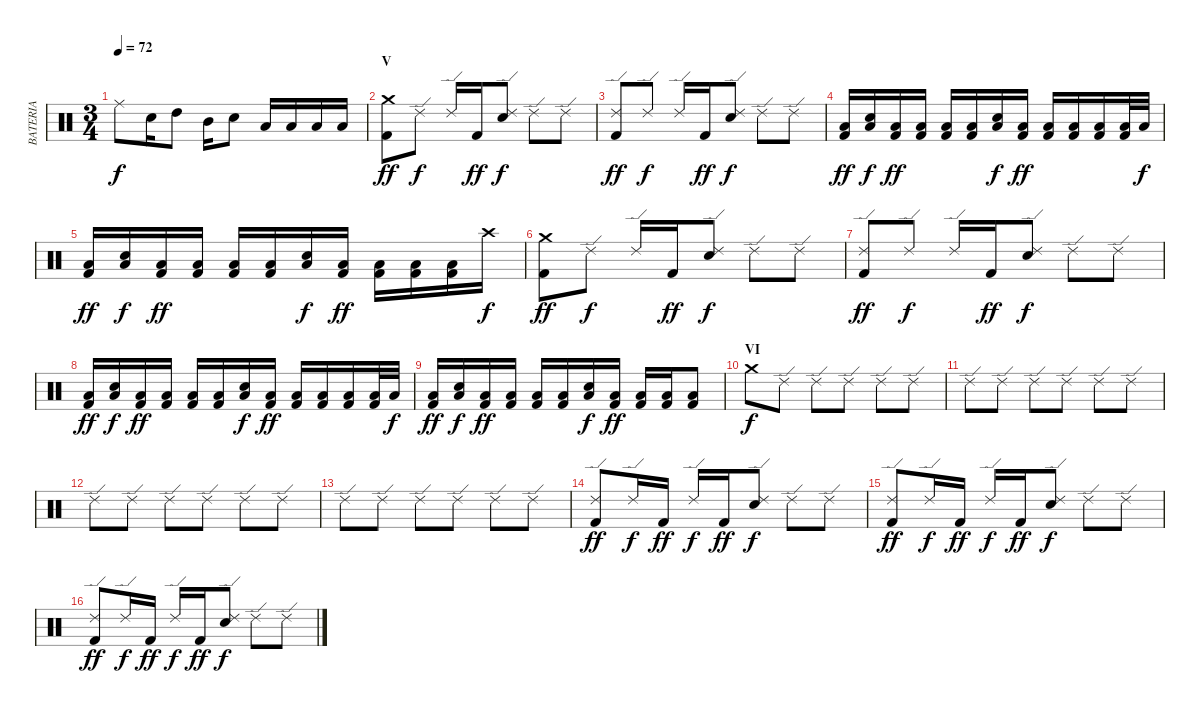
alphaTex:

\track ("BATERIA" "BATERIA") {instrument percussion}
\staff {score}
\articulation defaults
\ts (3 4)
\tempo 72
\clef neutral
\ks c "Ride (middle)".8{dy f} "Snare (hit) 2".16 "High Tom (hit)".8 "Mid Tom (hit)".16 "Snare (hit) 2".8 "Low Tom (hit)".16 "Low Tom (hit)".16 "Low Tom (hit)".16 "Low Tom (hit)".16
|
\section ("" "V")
("Crash medium (hit)" "Kick (hit) 2").8{dy ff} "Ride (edge) 2".8{dy f} "Ride (edge) 2".16 "Kick (hit) 2".16{dy ff} ("Ride (edge) 2" "Snare (hit) 2").8{dy f} "Ride (edge) 2".8 "Ride (edge) 2".8 |
("Ride (edge) 2" "Kick (hit) 2").8{dy ff} "Ride (edge) 2".8{dy f} "Ride (edge) 2".16 "Kick (hit) 2".16{dy ff} ("Ride (edge) 2" "Snare (hit) 2").8{dy f} "Ride (edge) 2".8 "Ride (edge) 2".8 |
("Low Tom (hit)" "Kick (hit) 2").16{dy ff} ("Low Tom (hit)" "Snare (hit) 2").16{dy f} ("Low Tom (hit)" "Kick (hit) 2").16{dy ff} ("Low Tom (hit)" "Kick (hit) 2").16 ("Low Tom (hit)" "Kick (hit) 2").16 ("Low Tom (hit)" "Kick (hit) 2").16 ("Low Tom (hit)" "Snare (hit) 2").16{dy f} ("Low Tom (hit)" "Kick (hit) 2").16{dy ff} ("Low Tom (hit)" "Kick (hit) 2").16 ("Low Tom (hit)" "Kick (hit) 2").16 ("Low Tom (hit)" "Kick (hit) 2").16 ("Low Tom (hit)" "Kick (hit) 2").32 "Low Tom (hit)".32{dy f} |
("Low Tom (hit)" "Kick (hit) 2").16{dy ff} ("Low Tom (hit)" "Snare (hit) 2").16{dy f} ("Low Tom (hit)" "Kick (hit) 2").16{dy ff} ("Low Tom (hit)" "Kick (hit) 2").16 ("Low Tom (hit)" "Kick (hit) 2").16 ("Low Tom (hit)" "Kick (hit) 2").16 ("Low Tom (hit)" "Snare (hit) 2").16{dy f} ("Low Tom (hit)" "Kick (hit) 2").16{dy ff} ("Low Tom (hit)" "Kick (hit) 2").16 ("Low Tom (hit)" "Kick (hit) 2").16 ("Low Tom (hit)" "Kick (hit) 2").16 "Crash high (hit)".16{dy f} |
("Crash medium (hit)" "Kick (hit) 2").8{dy ff} "Ride (edge) 2".8{dy f} "Ride (edge) 2".16 "Kick (hit) 2".16{dy ff} ("Ride (edge) 2" "Snare (hit) 2").8{dy f} "Ride (edge) 2".8 "Ride (edge) 2".8 |
("Ride (edge) 2" "Kick (hit) 2").8{dy ff} "Ride (edge) 2".8{dy f} "Ride (edge) 2".16 "Kick (hit) 2".16{dy ff} ("Ride (edge) 2" "Snare (hit) 2").8{dy f} "Ride (edge) 2".8 "Ride (edge) 2".8 |
("Low Tom (hit)" "Kick (hit) 2").16{dy ff} ("Low Tom (hit)" "Snare (hit) 2").16{dy f} ("Low Tom (hit)" "Kick (hit) 2").16{dy ff} ("Low Tom (hit)" "Kick (hit) 2").16 ("Low Tom (hit)" "Kick (hit) 2").16 ("Low Tom (hit)" "Kick (hit) 2").16 ("Low Tom (hit)" "Snare (hit) 2").16{dy f} ("Low Tom (hit)" "Kick (hit) 2").16{dy ff} ("Low Tom (hit)" "Kick (hit) 2").16 ("Low Tom (hit)" "Kick (hit) 2").16 ("Low Tom (hit)" "Kick (hit) 2").16 ("Low Tom (hit)" "Kick (hit) 2").32 "Low Tom (hit)".32{dy f} |
("Low Tom (hit)" "Kick (hit) 2").16{dy ff} ("Low Tom (hit)" "Snare (hit) 2").16{dy f} ("Low Tom (hit)" "Kick (hit) 2").16{dy ff} ("Low Tom (hit)" "Kick (hit) 2").16 ("Low Tom (hit)" "Kick (hit) 2").16 ("Low Tom (hit)" "Kick (hit) 2").16 ("Low Tom (hit)" "Snare (hit) 2").16{dy f} ("Low Tom (hit)" "Kick (hit) 2").16{dy ff} ("Low Tom (hit)" "Kick (hit) 2").16 ("Low Tom (hit)" "Kick (hit) 2").16 ("Low Tom (hit)" "Kick (hit) 2").8 |
\section ("" "VI")
"Crash medium (hit)".8{dy f} "Ride (edge) 2".8 "Ride (edge) 2".8 "Ride (edge) 2".8 "Ride (edge) 2".8 "Ride (edge) 2".8 |
"Ride (edge) 2".8 "Ride (edge) 2".8 "Ride (edge) 2".8 "Ride (edge) 2".8 "Ride (edge) 2".8 "Ride (edge) 2".8 |
"Ride (edge) 2".8 "Ride (edge) 2".8 "Ride (edge) 2".8 "Ride (edge) 2".8 "Ride (edge) 2".8 "Ride (edge) 2".8 |
"Ride (edge) 2".8 "Ride (edge) 2".8 "Ride (edge) 2".8 "Ride (edge) 2".8 "Ride (edge) 2".8 "Ride (edge) 2".8 |
("Ride (edge) 2" "Kick (hit) 2").8{dy ff} "Ride (edge) 2".16{dy f} "Kick (hit) 2".16{dy ff} "Ride (edge) 2".16{dy f} "Kick (hit) 2".16{dy ff} ("Ride (edge) 2" "Snare (hit) 2").8{dy f} "Ride (edge) 2".8 "Ride (edge) 2".8 |
("Ride (edge) 2" "Kick (hit) 2").8{dy ff} "Ride (edge) 2".16{dy f} "Kick (hit) 2".16{dy ff} "Ride (edge) 2".16{dy f} "Kick (hit) 2".16{dy ff} ("Ride (edge) 2" "Snare (hit) 2").8{dy f} "Ride (edge) 2".8 "Ride (edge) 2".8 |
("Ride (edge) 2" "Kick (hit) 2").8{dy ff} "Ride (edge) 2".16{dy f} "Kick (hit) 2".16{dy ff} "Ride (edge) 2".16{dy f} "Kick (hit) 2".16{dy ff} ("Ride (edge) 2" "Snare (hit) 2").8{dy f} "Ride (edge) 2".8 "Ride (edge) 2".8
